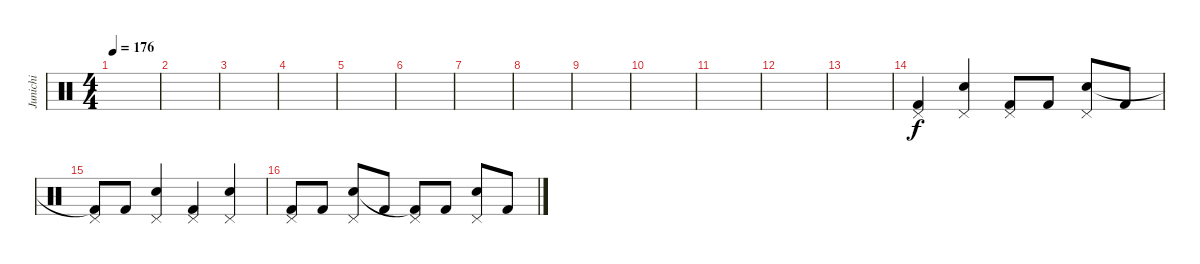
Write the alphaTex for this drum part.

\track ("Junichi" "Junichi") {instrument percussion}
\staff {score}
\articulation defaults
\ts (4 4)
\tempo 176
\clef neutral
\ks c
|
|
|
|
|
|
|
|
|
|
|
|
|
("Pedal Hi-Hat (hit)" "Kick (hit) 2").4 ("Pedal Hi-Hat (hit)" "Snare (hit) 2").4 ("Pedal Hi-Hat (hit)" "Kick (hit) 2").8 "Kick (hit) 2".8 ("Pedal Hi-Hat (hit)" "Snare (hit) 2").8 "Kick (hit) 2".8 |
("Pedal Hi-Hat (hit)" "Kick (hit) 2"{t}).8 "Kick (hit) 2".8 ("Pedal Hi-Hat (hit)" "Snare (hit) 2").4 ("Pedal Hi-Hat (hit)" "Kick (hit) 2").4 ("Pedal Hi-Hat (hit)" "Snare (hit) 2").4 |
("Pedal Hi-Hat (hit)" "Kick (hit) 2").8 "Kick (hit) 2".8 ("Pedal Hi-Hat (hit)" "Snare (hit) 2").8 "Kick (hit) 2".8 ("Pedal Hi-Hat (hit)" "Kick (hit) 2"{t}).8 "Kick (hit) 2".8 ("Pedal Hi-Hat (hit)" "Snare (hit) 2").8 "Kick (hit) 2".8
